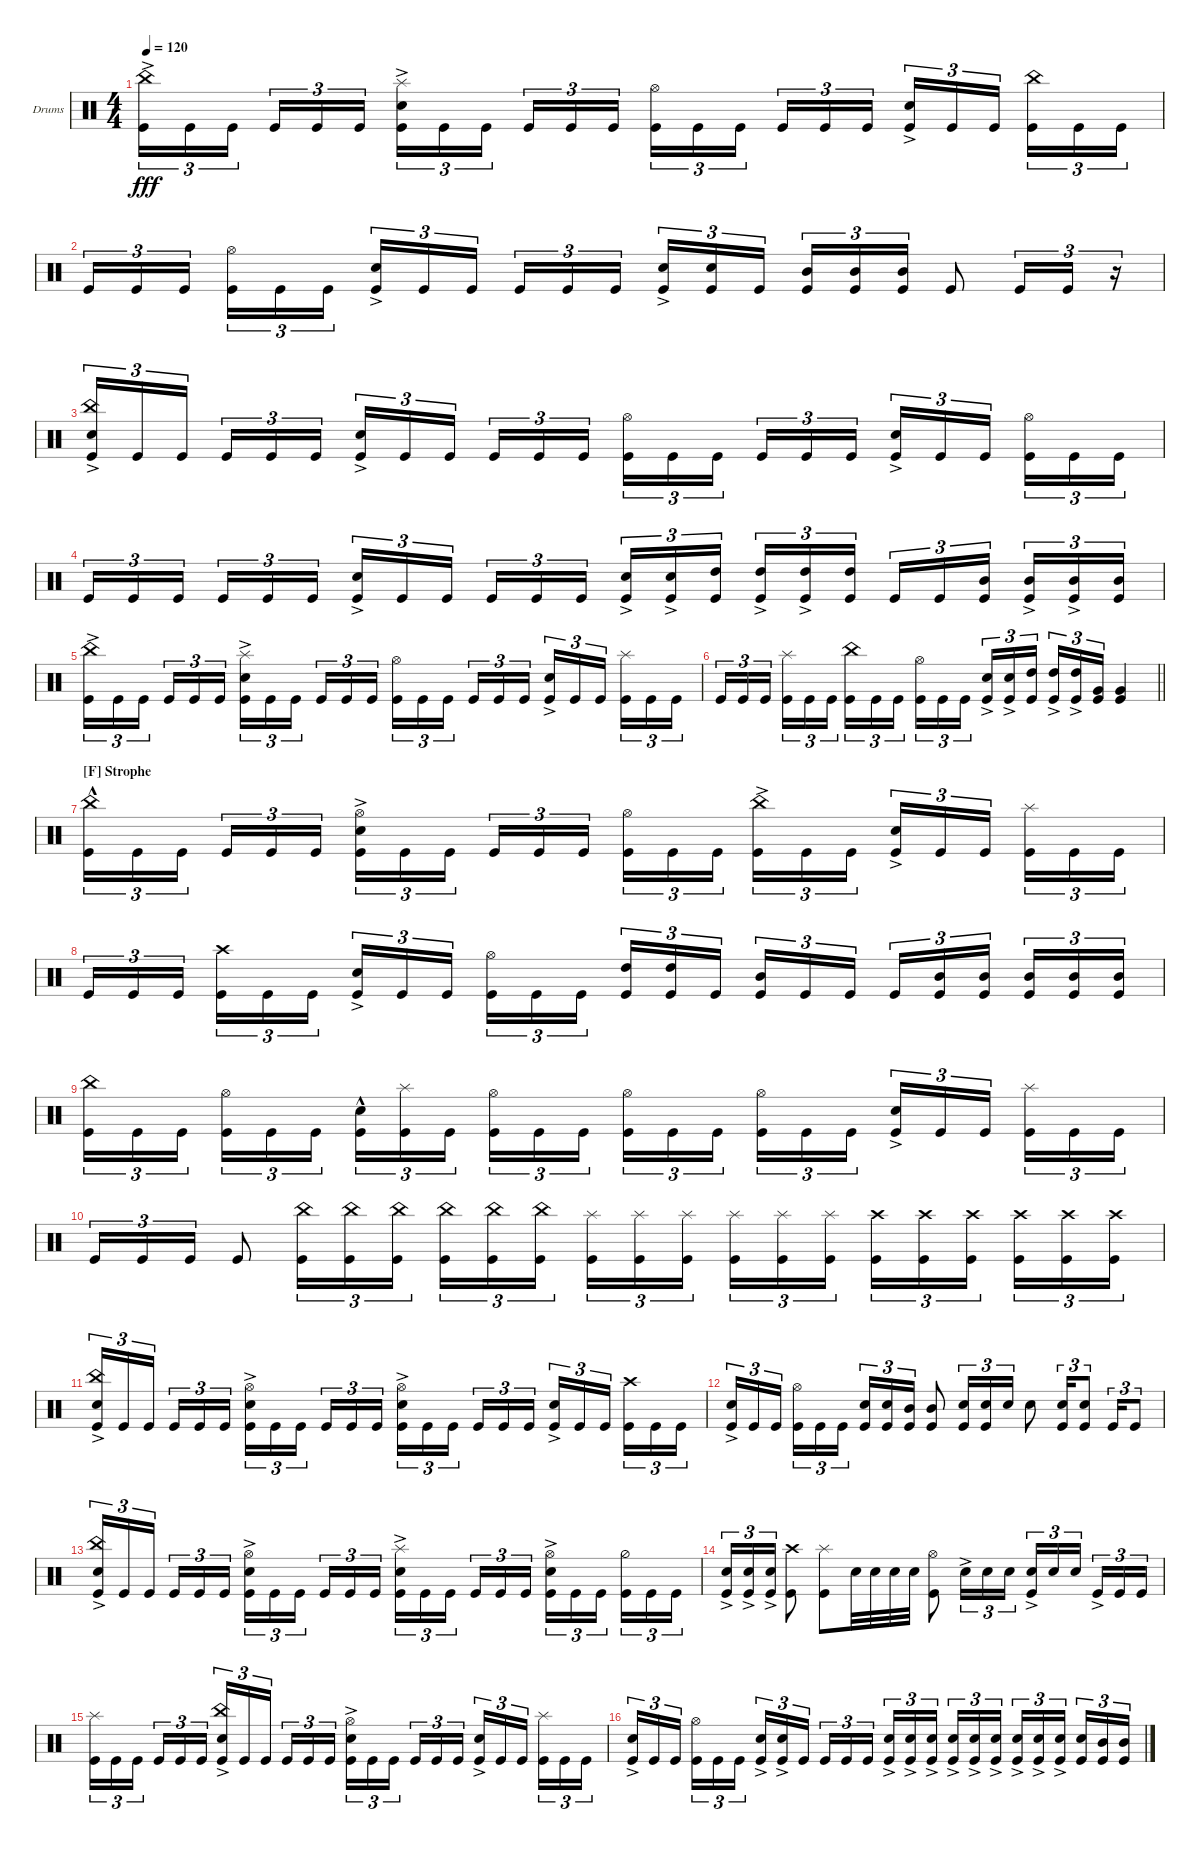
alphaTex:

\defaultSystemsLayout 4
\bracketExtendMode groupsimilarinstruments
\firstSystemTrackNameOrientation horizontal
\otherSystemsTrackNameOrientation horizontal
\track ("Drumkit" "Drums") {instrument percussion}
\staff {score}
\articulation defaults
\ts (4 4)
\tempo 120
\clef neutral
\ks c
("Kick (hit)" "China (hit)"{ac}).16{tu (3 2) dy fff} "Kick (hit)".16{tu (3 2)} "Kick (hit)".16{tu (3 2)} "Kick (hit)".16{tu (3 2)} "Kick (hit)".16{tu (3 2)} "Kick (hit)".16{tu (3 2)} ("Kick (hit)" "Snare (hit) 2"{ac} "Splash (hit)"{ac}).16{tu (3 2)} "Kick (hit)".16{tu (3 2)} "Kick (hit)".16{tu (3 2)} "Kick (hit)".16{tu (3 2)} "Kick (hit)".16{tu (3 2)} "Kick (hit)".16{tu (3 2)} ("Kick (hit)" "Hi-Hat (open)").16{tu (3 2)} "Kick (hit)".16{tu (3 2)} "Kick (hit)".16{tu (3 2)} "Kick (hit)".16{tu (3 2)} "Kick (hit)".16{tu (3 2)} "Kick (hit)".16{tu (3 2)} ("Kick (hit)" "Snare (hit) 2"{ac}).16{tu (3 2)} "Kick (hit)".16{tu (3 2)} "Kick (hit)".16{tu (3 2)} ("Kick (hit)" "China (hit)").16{tu (3 2)} "Kick (hit)".16{tu (3 2)} "Kick (hit)".16{tu (3 2)} |
"Kick (hit)".16{tu (3 2)} "Kick (hit)".16{tu (3 2)} "Kick (hit)".16{tu (3 2)} ("Kick (hit)" "Hi-Hat (open)").16{tu (3 2)} "Kick (hit)".16{tu (3 2)} "Kick (hit)".16{tu (3 2)} ("Kick (hit)" "Snare (hit) 2"{ac}).16{tu (3 2)} "Kick (hit)".16{tu (3 2)} "Kick (hit)".16{tu (3 2)} "Kick (hit)".16{tu (3 2)} "Kick (hit)".16{tu (3 2)} "Kick (hit)".16{tu (3 2)} ("Kick (hit)" "Snare (hit) 2"{ac}).16{tu (3 2)} ("Kick (hit)" "Snare (hit) 2").16{tu (3 2)} "Kick (hit)".16{tu (3 2)} ("Kick (hit)" "Mid Tom (hit)").16{tu (3 2)} ("Kick (hit)" "Mid Tom (hit)").16{tu (3 2)} ("Kick (hit)" "Mid Tom (hit)").16{tu (3 2)} "Kick (hit)".8 "Kick (hit)".16{tu (3 2)} "Kick (hit)".16{tu (3 2)} r.16{tu (3 2)} |
("Kick (hit)" "Snare (hit) 2"{ac} "China (hit)"{ac}).16{tu (3 2)} "Kick (hit)".16{tu (3 2)} "Kick (hit)".16{tu (3 2)} "Kick (hit)".16{tu (3 2)} "Kick (hit)".16{tu (3 2)} "Kick (hit)".16{tu (3 2)} ("Kick (hit)" "Snare (hit) 2"{ac}).16{tu (3 2)} "Kick (hit)".16{tu (3 2)} "Kick (hit)".16{tu (3 2)} "Kick (hit)".16{tu (3 2)} "Kick (hit)".16{tu (3 2)} "Kick (hit)".16{tu (3 2)} ("Kick (hit)" "Hi-Hat (open)").16{tu (3 2)} "Kick (hit)".16{tu (3 2)} "Kick (hit)".16{tu (3 2)} "Kick (hit)".16{tu (3 2)} "Kick (hit)".16{tu (3 2)} "Kick (hit)".16{tu (3 2)} ("Kick (hit)" "Snare (hit) 2"{ac}).16{tu (3 2)} "Kick (hit)".16{tu (3 2)} "Kick (hit)".16{tu (3 2)} ("Kick (hit)" "Hi-Hat (open)").16{tu (3 2)} "Kick (hit)".16{tu (3 2)} "Kick (hit)".16{tu (3 2)} |
"Kick (hit)".16{tu (3 2)} "Kick (hit)".16{tu (3 2)} "Kick (hit)".16{tu (3 2)} "Kick (hit)".16{tu (3 2)} "Kick (hit)".16{tu (3 2)} "Kick (hit)".16{tu (3 2)} ("Kick (hit)" "Snare (hit) 2"{ac}).16{tu (3 2)} "Kick (hit)".16{tu (3 2)} "Kick (hit)".16{tu (3 2)} "Kick (hit)".16{tu (3 2)} "Kick (hit)".16{tu (3 2)} "Kick (hit)".16{tu (3 2)} ("Kick (hit)" "Snare (hit) 2"{ac}).16{tu (3 2)} ("Kick (hit)" "Snare (hit) 2"{ac}).16{tu (3 2)} ("Kick (hit)" "High Tom (hit)").16{tu (3 2)} ("Kick (hit)" "High Tom (hit)"{ac}).16{tu (3 2)} ("Kick (hit)" "High Tom (hit)"{ac}).16{tu (3 2)} ("Kick (hit)" "High Tom (hit)").16{tu (3 2)} "Kick (hit)".16{tu (3 2)} "Kick (hit)".16{tu (3 2)} ("Kick (hit)" "Mid Tom (hit)").16{tu (3 2)} ("Kick (hit)" "Mid Tom (hit)"{ac}).16{tu (3 2)} ("Kick (hit)" "Mid Tom (hit)"{ac}).16{tu (3 2)} ("Kick (hit)" "Mid Tom (hit)").16{tu (3 2)} |
("Kick (hit)" "China (hit)"{ac}).16{tu (3 2)} "Kick (hit)".16{tu (3 2)} "Kick (hit)".16{tu (3 2)} "Kick (hit)".16{tu (3 2)} "Kick (hit)".16{tu (3 2)} "Kick (hit)".16{tu (3 2)} ("Kick (hit)" "Snare (hit) 2"{ac} "Splash (hit)"{ac}).16{tu (3 2)} "Kick (hit)".16{tu (3 2)} "Kick (hit)".16{tu (3 2)} "Kick (hit)".16{tu (3 2)} "Kick (hit)".16{tu (3 2)} "Kick (hit)".16{tu (3 2)} ("Kick (hit)" "Hi-Hat (open)").16{tu (3 2)} "Kick (hit)".16{tu (3 2)} "Kick (hit)".16{tu (3 2)} "Kick (hit)".16{tu (3 2)} "Kick (hit)".16{tu (3 2)} "Kick (hit)".16{tu (3 2)} ("Kick (hit)" "Snare (hit) 2"{ac}).16{tu (3 2)} "Kick (hit)".16{tu (3 2)} "Kick (hit)".16{tu (3 2)} ("Kick (hit)" "Splash (hit)").16{tu (3 2)} "Kick (hit)".16{tu (3 2)} "Kick (hit)".16{tu (3 2)} |
\barLineRight lightlight "Kick (hit)".16{tu (3 2)} "Kick (hit)".16{tu (3 2)} "Kick (hit)".16{tu (3 2)}
("Kick (hit)" "Splash (hit)").16{tu (3 2)} "Kick (hit)".16{tu (3 2)} "Kick (hit)".16{tu (3 2)} ("Kick (hit)" "China (hit)").16{tu (3 2)} "Kick (hit)".16{tu (3 2)} "Kick (hit)".16{tu (3 2)} ("Kick (hit)" "Hi-Hat (open)").16{tu (3 2)} "Kick (hit)".16{tu (3 2)} "Kick (hit)".16{tu (3 2)} ("Kick (hit)" "Snare (hit) 2"{ac}).16{tu (3 2)} ("Kick (hit)" "Snare (hit) 2"{ac}).16{tu (3 2)} ("Kick (hit)" "High Tom (hit)").16{tu (3 2)} ("Kick (hit)" "High Tom (hit)"{ac}).16{tu (3 2)} ("Kick (hit)" "High Tom (hit)"{ac}).16{tu (3 2)} ("Kick (hit)" "Very Low Tom (hit)").16{tu (3 2)} ("Kick (hit)" "Very Low Tom (hit)").4 |
\section ("F" "Strophe")
("Kick (hit)" "China (hit)"{hac}).16{tu (3 2)} "Kick (hit)".16{tu (3 2)} "Kick (hit)".16{tu (3 2)} "Kick (hit)".16{tu (3 2)} "Kick (hit)".16{tu (3 2)} "Kick (hit)".16{tu (3 2)} ("Kick (hit)" "Snare (hit) 2"{ac} "Hi-Hat (open)").16{tu (3 2)} "Kick (hit)".16{tu (3 2)} "Kick (hit)".16{tu (3 2)} "Kick (hit)".16{tu (3 2)} "Kick (hit)".16{tu (3 2)} "Kick (hit)".16{tu (3 2)} ("Kick (hit)" "Hi-Hat (open)").16{tu (3 2)} "Kick (hit)".16{tu (3 2)} "Kick (hit)".16{tu (3 2)} ("Kick (hit)" "China (hit)"{ac}).16{tu (3 2)} "Kick (hit)".16{tu (3 2)} "Kick (hit)".16{tu (3 2)} ("Kick (hit)" "Snare (hit) 2"{ac}).16{tu (3 2)} "Kick (hit)".16{tu (3 2)} "Kick (hit)".16{tu (3 2)} ("Kick (hit)" "Splash (hit)").16{tu (3 2)} "Kick (hit)".16{tu (3 2)} "Kick (hit)".16{tu (3 2)} |
"Kick (hit)".16{tu (3 2)} "Kick (hit)".16{tu (3 2)} "Kick (hit)".16{tu (3 2)} ("Kick (hit)" "Crash high (hit)").16{tu (3 2)} "Kick (hit)".16{tu (3 2)} "Kick (hit)".16{tu (3 2)} ("Kick (hit)" "Snare (hit) 2"{ac}).16{tu (3 2)} "Kick (hit)".16{tu (3 2)} "Kick (hit)".16{tu (3 2)} ("Kick (hit)" "Hi-Hat (open)").16{tu (3 2)} "Kick (hit)".16{tu (3 2)} "Kick (hit)".16{tu (3 2)} ("Kick (hit)" "High Tom (hit)").16{tu (3 2)} ("Kick (hit)" "High Tom (hit)").16{tu (3 2)} "Kick (hit)".16{tu (3 2)} ("Kick (hit)" "Mid Tom (hit)").16{tu (3 2)} "Kick (hit)".16{tu (3 2)} "Kick (hit)".16{tu (3 2)} "Kick (hit)".16{tu (3 2)} ("Kick (hit)" "Mid Tom (hit)").16{tu (3 2)} ("Kick (hit)" "Mid Tom (hit)").16{tu (3 2)} ("Kick (hit)" "Mid Tom (hit)").16{tu (3 2)} ("Kick (hit)" "Mid Tom (hit)").16{tu (3 2)} ("Kick (hit)" "Mid Tom (hit)").16{tu (3 2)} |
("Kick (hit)" "China (hit)").16{tu (3 2)} "Kick (hit)".16{tu (3 2)} "Kick (hit)".16{tu (3 2)} ("Kick (hit)" "Hi-Hat (open)").16{tu (3 2)} "Kick (hit)".16{tu (3 2)} "Kick (hit)".16{tu (3 2)} ("Kick (hit)" "Snare (hit) 2"{hac}).16{tu (3 2)} ("Kick (hit)" "Splash (hit)").16{tu (3 2)} "Kick (hit)".16{tu (3 2)} ("Kick (hit)" "Hi-Hat (open)").16{tu (3 2)} "Kick (hit)".16{tu (3 2)} "Kick (hit)".16{tu (3 2)} ("Kick (hit)" "Hi-Hat (open)").16{tu (3 2)} "Kick (hit)".16{tu (3 2)} "Kick (hit)".16{tu (3 2)} ("Kick (hit)" "Hi-Hat (open)").16{tu (3 2)} "Kick (hit)".16{tu (3 2)} "Kick (hit)".16{tu (3 2)} ("Kick (hit)" "Snare (hit) 2"{ac}).16{tu (3 2)} "Kick (hit)".16{tu (3 2)} "Kick (hit)".16{tu (3 2)} ("Kick (hit)" "Splash (hit)").16{tu (3 2)} "Kick (hit)".16{tu (3 2)} "Kick (hit)".16{tu (3 2)} |
"Kick (hit)".16{tu (3 2)} "Kick (hit)".16{tu (3 2)} "Kick (hit)".16{tu (3 2)} "Kick (hit)".8 ("Kick (hit)" "China (hit)").16{tu (3 2)} ("Kick (hit)" "China (hit)").16{tu (3 2)} ("Kick (hit)" "China (hit)").16{tu (3 2)} ("Kick (hit)" "China (hit)").16{tu (3 2)} ("Kick (hit)" "China (hit)").16{tu (3 2)} ("Kick (hit)" "China (hit)").16{tu (3 2)} ("Kick (hit)" "Splash (hit)").16{tu (3 2)} ("Kick (hit)" "Splash (hit)").16{tu (3 2)} ("Kick (hit)" "Splash (hit)").16{tu (3 2)} ("Kick (hit)" "Splash (hit)").16{tu (3 2)} ("Kick (hit)" "Splash (hit)").16{tu (3 2)} ("Kick (hit)" "Splash (hit)").16{tu (3 2)} ("Kick (hit)" "Crash high (hit)").16{tu (3 2)} ("Kick (hit)" "Crash high (hit)").16{tu (3 2)} ("Kick (hit)" "Crash high (hit)").16{tu (3 2)} ("Kick (hit)" "Crash high (hit)").16{tu (3 2)} ("Kick (hit)" "Crash high (hit)").16{tu (3 2)} ("Kick (hit)" "Crash high (hit)").16{tu (3 2)} |
("Kick (hit)" "China (hit)"{ac} "Snare (hit) 2"{ac}).16{tu (3 2)} "Kick (hit)".16{tu (3 2)} "Kick (hit)".16{tu (3 2)} "Kick (hit)".16{tu (3 2)} "Kick (hit)".16{tu (3 2)} "Kick (hit)".16{tu (3 2)} ("Kick (hit)" "Snare (hit) 2"{ac} "Hi-Hat (open)").16{tu (3 2)} "Kick (hit)".16{tu (3 2)} "Kick (hit)".16{tu (3 2)} "Kick (hit)".16{tu (3 2)} "Kick (hit)".16{tu (3 2)} "Kick (hit)".16{tu (3 2)} ("Kick (hit)" "Snare (hit) 2"{ac} "Hi-Hat (open)").16{tu (3 2)} "Kick (hit)".16{tu (3 2)} "Kick (hit)".16{tu (3 2)} "Kick (hit)".16{tu (3 2)} "Kick (hit)".16{tu (3 2)} "Kick (hit)".16{tu (3 2)} ("Kick (hit)" "Snare (hit) 2"{ac}).16{tu (3 2)} "Kick (hit)".16{tu (3 2)} "Kick (hit)".16{tu (3 2)} ("Kick (hit)" "Crash high (hit)").16{tu (3 2)} "Kick (hit)".16{tu (3 2)} "Kick (hit)".16{tu (3 2)} |
("Kick (hit)" "Snare (hit) 2"{ac}).16{tu (3 2)} "Kick (hit)".16{tu (3 2)} "Kick (hit)".16{tu (3 2)} ("Kick (hit)" "Hi-Hat (open)").16{tu (3 2)} "Kick (hit)".16{tu (3 2)} "Kick (hit)".16{tu (3 2)} ("Snare (hit) 2" "Kick (hit)").16{tu (3 2)} ("Snare (hit) 2" "Kick (hit)").16{tu (3 2)} ("Mid Tom (hit)" "Kick (hit)").16{tu (3 2)} ("Mid Tom (hit)" "Kick (hit)").8 ("Snare (hit) 2" "Kick (hit)").16{tu (3 2)} ("Snare (hit) 2" "Kick (hit)").16{tu (3 2)} "Snare (hit) 2".16{tu (3 2)} "Snare (hit) 2".8 ("Snare (hit) 2" "Kick (hit)").16{tu (3 2)} ("Snare (hit) 2" "Kick (hit)").8{tu (3 2)} "Kick (hit)".16{tu (3 2)} "Kick (hit)".8{tu (3 2)} |
("Kick (hit)" "China (hit)"{ac} "Snare (hit) 2"{ac}).16{tu (3 2)} "Kick (hit)".16{tu (3 2)} "Kick (hit)".16{tu (3 2)} "Kick (hit)".16{tu (3 2)} "Kick (hit)".16{tu (3 2)} "Kick (hit)".16{tu (3 2)} ("Kick (hit)" "Snare (hit) 2"{ac} "Hi-Hat (open)"{ac}).16{tu (3 2)} "Kick (hit)".16{tu (3 2)} "Kick (hit)".16{tu (3 2)} "Kick (hit)".16{tu (3 2)} "Kick (hit)".16{tu (3 2)} "Kick (hit)".16{tu (3 2)} ("Kick (hit)" "Snare (hit) 2"{ac} "Splash (hit)").16{tu (3 2)} "Kick (hit)".16{tu (3 2)} "Kick (hit)".16{tu (3 2)} "Kick (hit)".16{tu (3 2)} "Kick (hit)".16{tu (3 2)} "Kick (hit)".16{tu (3 2)} ("Kick (hit)" "Snare (hit) 2"{ac} "Hi-Hat (open)").16{tu (3 2)} "Kick (hit)".16{tu (3 2)} "Kick (hit)".16{tu (3 2)} ("Kick (hit)" "Hi-Hat (half)").16{tu (3 2)} "Kick (hit)".16{tu (3 2)} "Kick (hit)".16{tu (3 2)} |
("Snare (hit) 2"{ac} "Kick (hit)").16{tu (3 2)} ("Snare (hit) 2"{ac} "Kick (hit)").16{tu (3 2)} ("Snare (hit) 2"{ac} "Kick (hit)").16{tu (3 2)} ("Kick (hit)" "Crash high (hit)").8 ("Kick (hit)" "Splash (hit)").8 "Snare (hit) 2".32 "Snare (hit) 2".32 "Snare (hit) 2".32 "Snare (hit) 2".32 ("Kick (hit)" "Hi-Hat (open)").8 "Snare (hit) 2"{ac}.16{tu (3 2)} "Snare (hit) 2".16{tu (3 2)} "Snare (hit) 2".16{tu (3 2)} ("Snare (hit) 2" "Kick (hit)"{ac}).16{tu (3 2)} "Snare (hit) 2".16{tu (3 2)} "Snare (hit) 2".16{tu (3 2)} "Kick (hit)"{ac}.16{tu (3 2)} "Kick (hit)".16{tu (3 2)} "Kick (hit)".16{tu (3 2)} |
("Kick (hit)" "Splash (hit)").16{tu (3 2)} "Kick (hit)".16{tu (3 2)} "Kick (hit)".16{tu (3 2)} "Kick (hit)".16{tu (3 2)} "Kick (hit)".16{tu (3 2)} "Kick (hit)".16{tu (3 2)} ("Kick (hit)" "Snare (hit) 2"{ac} "China (hit)").16{tu (3 2)} "Kick (hit)".16{tu (3 2)} "Kick (hit)".16{tu (3 2)} "Kick (hit)".16{tu (3 2)} "Kick (hit)".16{tu (3 2)} "Kick (hit)".16{tu (3 2)} ("Kick (hit)" "Snare (hit) 2"{ac} "Hi-Hat (open)").16{tu (3 2)} "Kick (hit)".16{tu (3 2)} "Kick (hit)".16{tu (3 2)} "Kick (hit)".16{tu (3 2)} "Kick (hit)".16{tu (3 2)} "Kick (hit)".16{tu (3 2)} ("Kick (hit)" "Snare (hit) 2"{ac}).16{tu (3 2)} "Kick (hit)".16{tu (3 2)} "Kick (hit)".16{tu (3 2)} ("Kick (hit)" "Splash (hit)").16{tu (3 2)} "Kick (hit)".16{tu (3 2)} "Kick (hit)".16{tu (3 2)} |
("Kick (hit)" "Snare (hit) 2"{ac}).16{tu (3 2)} "Kick (hit)".16{tu (3 2)} "Kick (hit)".16{tu (3 2)} ("Kick (hit)" "Hi-Hat (open)").16{tu (3 2)} "Kick (hit)".16{tu (3 2)} "Kick (hit)".16{tu (3 2)} ("Kick (hit)" "Snare (hit) 2"{ac}).16{tu (3 2)} ("Kick (hit)" "Snare (hit) 2"{ac}).16{tu (3 2)} "Kick (hit)".16{tu (3 2)} "Kick (hit)".16{tu (3 2)} "Kick (hit)".16{tu (3 2)} "Kick (hit)".16{tu (3 2)} ("Kick (hit)" "Snare (hit) 2"{ac}).16{tu (3 2)} ("Kick (hit)" "Snare (hit) 2"{ac}).16{tu (3 2)} ("Kick (hit)" "Snare (hit) 2"{ac}).16{tu (3 2)} ("Kick (hit)" "Snare (hit) 2"{ac}).16{tu (3 2)} ("Kick (hit)" "Snare (hit) 2"{ac}).16{tu (3 2)} ("Kick (hit)" "Snare (hit) 2"{ac}).16{tu (3 2)} ("Kick (hit)" "Snare (hit) 2"{ac}).16{tu (3 2)} ("Kick (hit)" "Snare (hit) 2"{ac}).16{tu (3 2)} ("Kick (hit)" "Snare (hit) 2"{ac}).16{tu (3 2)} ("Kick (hit)" "Snare (hit) 2").16{tu (3 2)} ("Kick (hit)" "Mid Tom (hit)").16{tu (3 2)} ("Kick (hit)" "Mid Tom (hit)").16{tu (3 2)}
